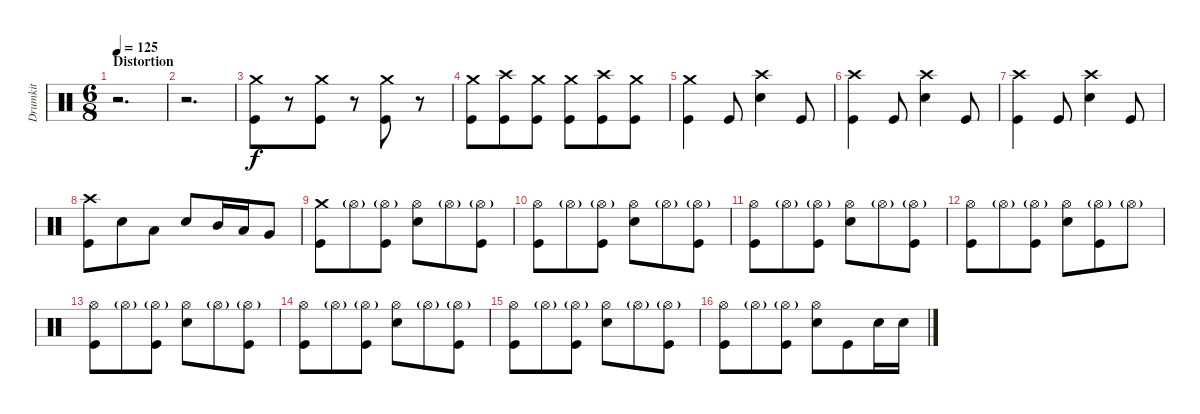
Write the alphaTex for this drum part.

\track ("Drumkit" "Drumkit") {instrument percussion}
\staff {score}
\articulation defaults
\ts (6 8)
\section ("" "Distortion")
\tempo 125
\clef neutral
\ks c
r.2{d dy f} |
r.2{d} |
("Kick (hit)" "Crash medium (hit)").8 r.8 ("Kick (hit)" "Crash medium (hit)").8 r.8 ("Kick (hit)" "Crash medium (hit)").8 r.8 |
("Kick (hit)" "Crash medium (hit)").8 ("Kick (hit)" "Crash high (hit)").8 ("Kick (hit)" "Crash medium (hit)").8 ("Kick (hit)" "Crash medium (hit)").8 ("Kick (hit)" "Crash high (hit)").8 ("Kick (hit)" "Crash medium (hit)").8 |
("Kick (hit)" "Crash medium (hit)").4 "Kick (hit)".8 ("Snare (hit) 2" "Crash high (hit)").4 "Kick (hit)".8 |
("Kick (hit)" "Crash high (hit)").4 "Kick (hit)".8 ("Snare (hit) 2" "Crash high (hit)").4 "Kick (hit)".8 |
("Kick (hit)" "Crash high (hit)").4 "Kick (hit)".8 ("Snare (hit) 2" "Crash high (hit)").4 "Kick (hit)".8 |
("Kick (hit)" "Crash high (hit)").8 "Snare (hit) 2".8 "Low Tom (hit)".8 "Snare (hit) 2".8 "Mid Tom (hit)".16 "Low Tom (hit)".16 "Very Low Tom (hit)".8 |
("Kick (hit)" "Crash medium (hit)").8 "Hi-Hat (open)"{g}.8 ("Kick (hit)" "Hi-Hat (open)"{g}).8 ("Snare (hit) 2" "Hi-Hat (open)").8 "Hi-Hat (open)"{g}.8 ("Hi-Hat (open)"{g} "Kick (hit)").8 |
("Kick (hit)" "Hi-Hat (open)").8 "Hi-Hat (open)"{g}.8 ("Kick (hit)" "Hi-Hat (open)"{g}).8 ("Snare (hit) 2" "Hi-Hat (open)").8 "Hi-Hat (open)"{g}.8 ("Hi-Hat (open)"{g} "Kick (hit)").8 |
("Kick (hit)" "Hi-Hat (open)").8 "Hi-Hat (open)"{g}.8 ("Kick (hit)" "Hi-Hat (open)"{g}).8 ("Snare (hit) 2" "Hi-Hat (open)").8 "Hi-Hat (open)"{g}.8 ("Hi-Hat (open)"{g} "Kick (hit)").8 |
("Kick (hit)" "Hi-Hat (open)").8 "Hi-Hat (open)"{g}.8 ("Kick (hit)" "Hi-Hat (open)"{g}).8 ("Snare (hit) 2" "Hi-Hat (open)").8 ("Kick (hit)" "Hi-Hat (open)"{g}).8 "Hi-Hat (open)"{g}.8 |
("Kick (hit)" "Hi-Hat (open)").8 "Hi-Hat (open)"{g}.8 ("Kick (hit)" "Hi-Hat (open)"{g}).8 ("Snare (hit) 2" "Hi-Hat (open)").8 "Hi-Hat (open)"{g}.8 ("Hi-Hat (open)"{g} "Kick (hit)").8 |
("Kick (hit)" "Hi-Hat (open)").8 "Hi-Hat (open)"{g}.8 ("Kick (hit)" "Hi-Hat (open)"{g}).8 ("Snare (hit) 2" "Hi-Hat (open)").8 "Hi-Hat (open)"{g}.8 ("Hi-Hat (open)"{g} "Kick (hit)").8 |
("Kick (hit)" "Hi-Hat (open)").8 "Hi-Hat (open)"{g}.8 ("Kick (hit)" "Hi-Hat (open)"{g}).8 ("Snare (hit) 2" "Hi-Hat (open)").8 "Hi-Hat (open)"{g}.8 ("Hi-Hat (open)"{g} "Kick (hit)").8 |
("Kick (hit)" "Hi-Hat (open)").8 "Hi-Hat (open)"{g}.8 ("Kick (hit)" "Hi-Hat (open)"{g}).8 ("Snare (hit) 2" "Hi-Hat (open)").8 "Kick (hit)".8 "Snare (hit) 2".16 "Snare (hit) 2".16
